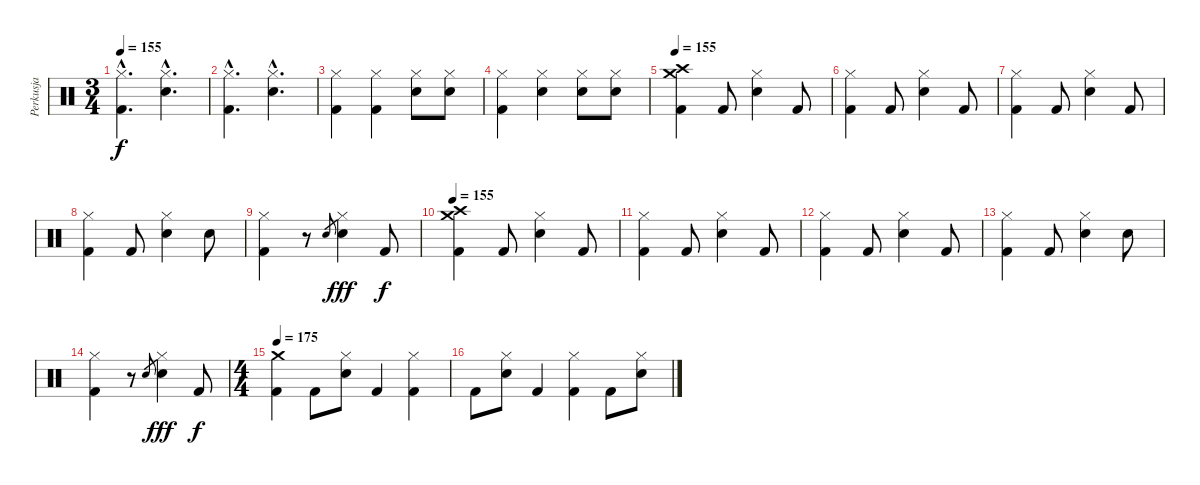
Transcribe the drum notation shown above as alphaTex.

\track ("Perkusja" "Perkusja") {instrument percussion}
\staff {score}
\articulation defaults
\ts (3 4)
\tempo 155
\clef neutral
\ks c
("Hi-Hat (closed)"{hac} "Kick (hit) 2"{hac}).4{d dy f} ("Hi-Hat (closed)"{hac} "Snare (hit) 2"{hac}).4{d} |
("Hi-Hat (closed)"{hac} "Kick (hit) 2"{hac}).4{d} ("Hi-Hat (closed)"{hac} "Snare (hit) 2"{hac}).4{d} |
("Hi-Hat (closed)" "Kick (hit) 2").4 ("Hi-Hat (closed)" "Kick (hit) 2").4 ("Hi-Hat (closed)" "Snare (hit) 2").8 ("Hi-Hat (closed)" "Snare (hit) 2").8 |
("Hi-Hat (closed)" "Kick (hit) 2").4 ("Hi-Hat (closed)" "Snare (hit) 2").4 ("Hi-Hat (closed)" "Snare (hit) 2").8 ("Hi-Hat (closed)" "Snare (hit) 2").8 |
\tempo 155
("Crash high (hit)" "Crash medium (hit)" "Kick (hit) 2").4 "Kick (hit) 2".8 ("Hi-Hat (closed)" "Snare (hit) 2").4 "Kick (hit) 2".8 |
("Hi-Hat (closed)" "Kick (hit) 2").4 "Kick (hit) 2".8 ("Hi-Hat (closed)" "Snare (hit) 2").4 "Kick (hit) 2".8 |
("Hi-Hat (closed)" "Kick (hit) 2").4 "Kick (hit) 2".8 ("Hi-Hat (closed)" "Snare (hit) 2").4 "Kick (hit) 2".8 |
("Hi-Hat (closed)" "Kick (hit) 2").4 "Kick (hit) 2".8 ("Hi-Hat (closed)" "Snare (hit) 2").4 "Snare (hit) 2".8 |
("Hi-Hat (closed)" "Kick (hit) 2").4 r.8 "Electric Snare (hit)".8{gr} ("Hi-Hat (closed)" "Electric Snare (hit)").4{dy fff} "Kick (hit) 2".8{dy f} |
\tempo 156
\tempo 155
("Crash high (hit)" "Crash medium (hit)" "Kick (hit) 2").4 "Kick (hit) 2".8 ("Hi-Hat (closed)" "Snare (hit) 2").4 "Kick (hit) 2".8 |
("Hi-Hat (closed)" "Kick (hit) 2").4 "Kick (hit) 2".8 ("Hi-Hat (closed)" "Snare (hit) 2").4 "Kick (hit) 2".8 |
("Hi-Hat (closed)" "Kick (hit) 2").4 "Kick (hit) 2".8 ("Hi-Hat (closed)" "Snare (hit) 2").4 "Kick (hit) 2".8 |
("Hi-Hat (closed)" "Kick (hit) 2").4 "Kick (hit) 2".8 ("Hi-Hat (closed)" "Snare (hit) 2").4 "Snare (hit) 2".8 |
("Hi-Hat (closed)" "Kick (hit) 2").4 r.8 "Electric Snare (hit)".8{gr} ("Hi-Hat (closed)" "Electric Snare (hit)").4{dy fff} "Kick (hit) 2".8{dy f} |
\ts (4 4)
\tempo 175
("Crash medium (hit)" "Kick (hit) 2").4 "Kick (hit) 2".8 ("Hi-Hat (closed)" "Snare (hit) 2").8 "Kick (hit) 2".4 ("Hi-Hat (closed)" "Kick (hit) 2").4 |
"Kick (hit) 2".8 ("Hi-Hat (closed)" "Snare (hit) 2").8 "Kick (hit) 2".4 ("Hi-Hat (closed)" "Kick (hit) 2").4 "Kick (hit) 2".8 ("Hi-Hat (closed)" "Snare (hit) 2").8
